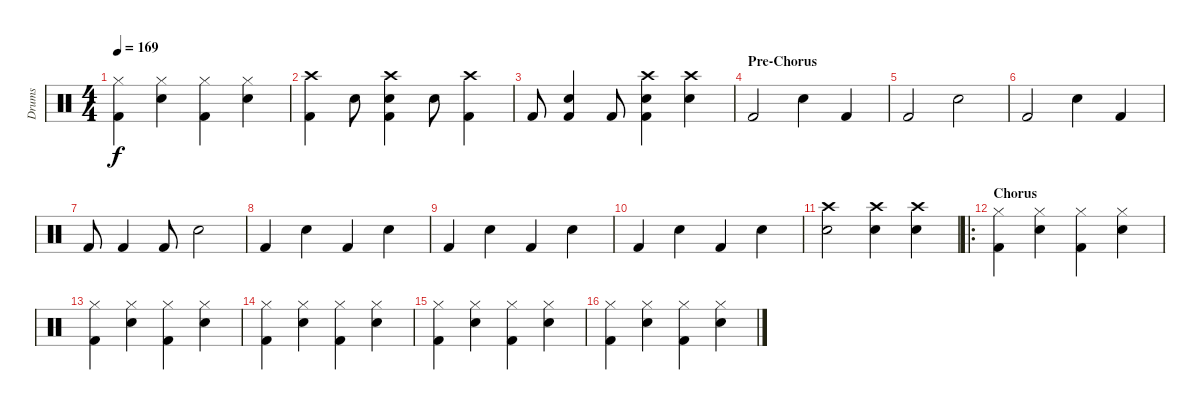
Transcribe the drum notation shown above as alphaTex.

\track ("Drums" "Drums") {instrument percussion}
\staff {score}
\articulation defaults
\ts (4 4)
\tempo 169
\clef neutral
\ks c
("Hi-Hat (closed)" "Kick (hit) 2").4{dy f} ("Hi-Hat (closed)" "Snare (hit) 2").4 ("Hi-Hat (closed)" "Kick (hit) 2").4 ("Hi-Hat (closed)" "Snare (hit) 2").4 |
("Crash high (hit)" "Kick (hit) 2").4 "Snare (hit) 2".8 ("Crash high (hit)" "Snare (hit) 2" "Kick (hit) 2").4 "Snare (hit) 2".8 ("Crash high (hit)" "Kick (hit) 2").4 |
"Kick (hit) 2".8 ("Snare (hit) 2" "Kick (hit) 2").4 "Kick (hit) 2".8 ("Kick (hit) 2" "Crash high (hit)" "Snare (hit) 2").4 ("Crash high (hit)" "Snare (hit) 2").4 |
\section ("" "Pre-Chorus")
"Kick (hit) 2".2 "Snare (hit) 2".4 "Kick (hit) 2".4 |
"Kick (hit) 2".2 "Snare (hit) 2".2 |
"Kick (hit) 2".2 "Snare (hit) 2".4 "Kick (hit) 2".4 |
"Kick (hit) 2".8 "Kick (hit) 2".4 "Kick (hit) 2".8 "Snare (hit) 2".2 |
"Kick (hit) 2".4 "Snare (hit) 2".4 "Kick (hit) 2".4 "Snare (hit) 2".4 |
"Kick (hit) 2".4 "Snare (hit) 2".4 "Kick (hit) 2".4 "Snare (hit) 2".4 |
"Kick (hit) 2".4 "Snare (hit) 2".4 "Kick (hit) 2".4 "Snare (hit) 2".4 |
("Crash high (hit)" "Snare (hit) 2").2 ("Crash high (hit)" "Snare (hit) 2").4 ("Crash high (hit)" "Snare (hit) 2").4 |
\ro
\section ("" "Chorus")
("Hi-Hat (closed)" "Kick (hit) 2").4 ("Hi-Hat (closed)" "Snare (hit) 2").4 ("Hi-Hat (closed)" "Kick (hit) 2").4 ("Hi-Hat (closed)" "Snare (hit) 2").4 |
("Hi-Hat (closed)" "Kick (hit) 2").4 ("Hi-Hat (closed)" "Snare (hit) 2").4 ("Hi-Hat (closed)" "Kick (hit) 2").4 ("Hi-Hat (closed)" "Snare (hit) 2").4 |
("Hi-Hat (closed)" "Kick (hit) 2").4 ("Hi-Hat (closed)" "Snare (hit) 2").4 ("Hi-Hat (closed)" "Kick (hit) 2").4 ("Hi-Hat (closed)" "Snare (hit) 2").4 |
("Hi-Hat (closed)" "Kick (hit) 2").4 ("Hi-Hat (closed)" "Snare (hit) 2").4 ("Hi-Hat (closed)" "Kick (hit) 2").4 ("Hi-Hat (closed)" "Snare (hit) 2").4 |
("Hi-Hat (closed)" "Kick (hit) 2").4 ("Hi-Hat (closed)" "Snare (hit) 2").4 ("Hi-Hat (closed)" "Kick (hit) 2").4 ("Hi-Hat (closed)" "Snare (hit) 2").4
